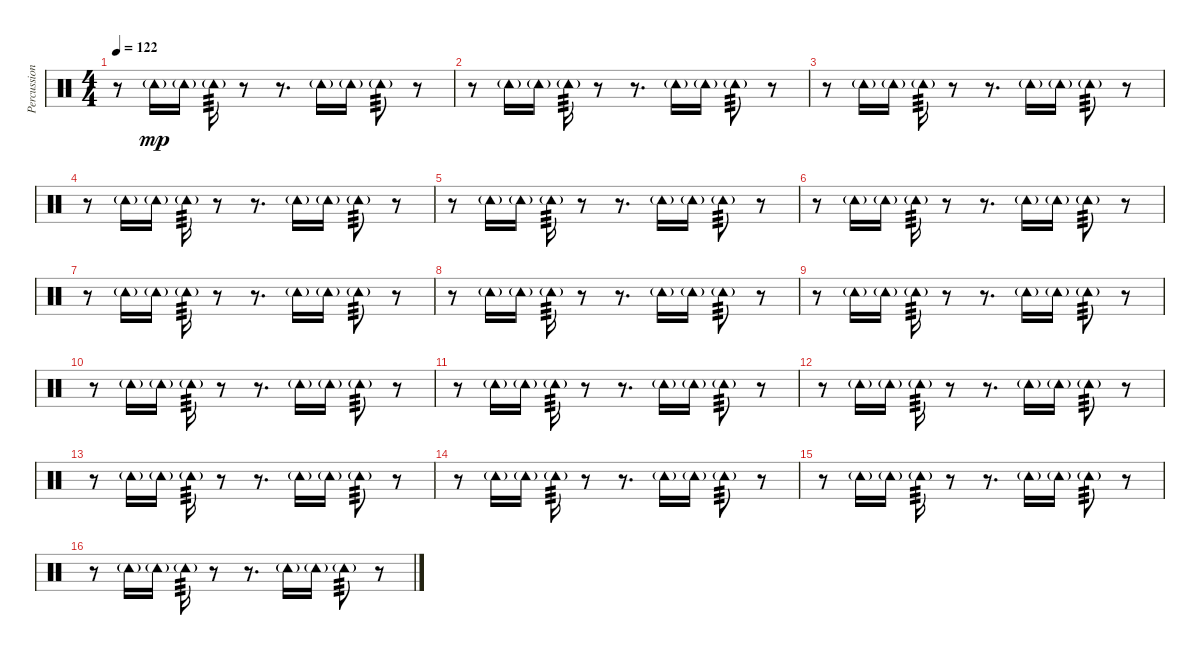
\track ("Percussion" "Percussion") {instrument percussion}
\staff {score}
\articulation defaults
\ts (4 4)
\tempo 122
\clef neutral
\ks c
r.8{dy mp} "Tambourine (hit)"{g}.16 "Tambourine (hit)"{g}.16 "Tambourine (hit)"{g}.16{tp 3} r.8 r.8{d} "Tambourine (hit)"{g}.16 "Tambourine (hit)"{g}.16 "Tambourine (hit)"{g}.8{tp 3} r.8 |
r.8 "Tambourine (hit)"{g}.16 "Tambourine (hit)"{g}.16 "Tambourine (hit)"{g}.16{tp 3} r.8 r.8{d} "Tambourine (hit)"{g}.16 "Tambourine (hit)"{g}.16 "Tambourine (hit)"{g}.8{tp 3} r.8 |
r.8 "Tambourine (hit)"{g}.16 "Tambourine (hit)"{g}.16 "Tambourine (hit)"{g}.16{tp 3} r.8 r.8{d} "Tambourine (hit)"{g}.16 "Tambourine (hit)"{g}.16 "Tambourine (hit)"{g}.8{tp 3} r.8 |
r.8 "Tambourine (hit)"{g}.16 "Tambourine (hit)"{g}.16 "Tambourine (hit)"{g}.16{tp 3} r.8 r.8{d} "Tambourine (hit)"{g}.16 "Tambourine (hit)"{g}.16 "Tambourine (hit)"{g}.8{tp 3} r.8 |
r.8 "Tambourine (hit)"{g}.16 "Tambourine (hit)"{g}.16 "Tambourine (hit)"{g}.16{tp 3} r.8 r.8{d} "Tambourine (hit)"{g}.16 "Tambourine (hit)"{g}.16 "Tambourine (hit)"{g}.8{tp 3} r.8 |
r.8 "Tambourine (hit)"{g}.16 "Tambourine (hit)"{g}.16 "Tambourine (hit)"{g}.16{tp 3} r.8 r.8{d} "Tambourine (hit)"{g}.16 "Tambourine (hit)"{g}.16 "Tambourine (hit)"{g}.8{tp 3} r.8 |
r.8 "Tambourine (hit)"{g}.16 "Tambourine (hit)"{g}.16 "Tambourine (hit)"{g}.16{tp 3} r.8 r.8{d} "Tambourine (hit)"{g}.16 "Tambourine (hit)"{g}.16 "Tambourine (hit)"{g}.8{tp 3} r.8 |
r.8 "Tambourine (hit)"{g}.16 "Tambourine (hit)"{g}.16 "Tambourine (hit)"{g}.16{tp 3} r.8 r.8{d} "Tambourine (hit)"{g}.16 "Tambourine (hit)"{g}.16 "Tambourine (hit)"{g}.8{tp 3} r.8 |
r.8 "Tambourine (hit)"{g}.16 "Tambourine (hit)"{g}.16 "Tambourine (hit)"{g}.16{tp 3} r.8 r.8{d} "Tambourine (hit)"{g}.16 "Tambourine (hit)"{g}.16 "Tambourine (hit)"{g}.8{tp 3} r.8 |
r.8 "Tambourine (hit)"{g}.16 "Tambourine (hit)"{g}.16 "Tambourine (hit)"{g}.16{tp 3} r.8 r.8{d} "Tambourine (hit)"{g}.16 "Tambourine (hit)"{g}.16 "Tambourine (hit)"{g}.8{tp 3} r.8 |
r.8 "Tambourine (hit)"{g}.16 "Tambourine (hit)"{g}.16 "Tambourine (hit)"{g}.16{tp 3} r.8 r.8{d} "Tambourine (hit)"{g}.16 "Tambourine (hit)"{g}.16 "Tambourine (hit)"{g}.8{tp 3} r.8 |
r.8 "Tambourine (hit)"{g}.16 "Tambourine (hit)"{g}.16 "Tambourine (hit)"{g}.16{tp 3} r.8 r.8{d} "Tambourine (hit)"{g}.16 "Tambourine (hit)"{g}.16 "Tambourine (hit)"{g}.8{tp 3} r.8 |
r.8 "Tambourine (hit)"{g}.16 "Tambourine (hit)"{g}.16 "Tambourine (hit)"{g}.16{tp 3} r.8 r.8{d} "Tambourine (hit)"{g}.16 "Tambourine (hit)"{g}.16 "Tambourine (hit)"{g}.8{tp 3} r.8 |
r.8 "Tambourine (hit)"{g}.16 "Tambourine (hit)"{g}.16 "Tambourine (hit)"{g}.16{tp 3} r.8 r.8{d} "Tambourine (hit)"{g}.16 "Tambourine (hit)"{g}.16 "Tambourine (hit)"{g}.8{tp 3} r.8 |
r.8 "Tambourine (hit)"{g}.16 "Tambourine (hit)"{g}.16 "Tambourine (hit)"{g}.16{tp 3} r.8 r.8{d} "Tambourine (hit)"{g}.16 "Tambourine (hit)"{g}.16 "Tambourine (hit)"{g}.8{tp 3} r.8 |
r.8 "Tambourine (hit)"{g}.16 "Tambourine (hit)"{g}.16 "Tambourine (hit)"{g}.16{tp 3} r.8 r.8{d} "Tambourine (hit)"{g}.16 "Tambourine (hit)"{g}.16 "Tambourine (hit)"{g}.8{tp 3} r.8
